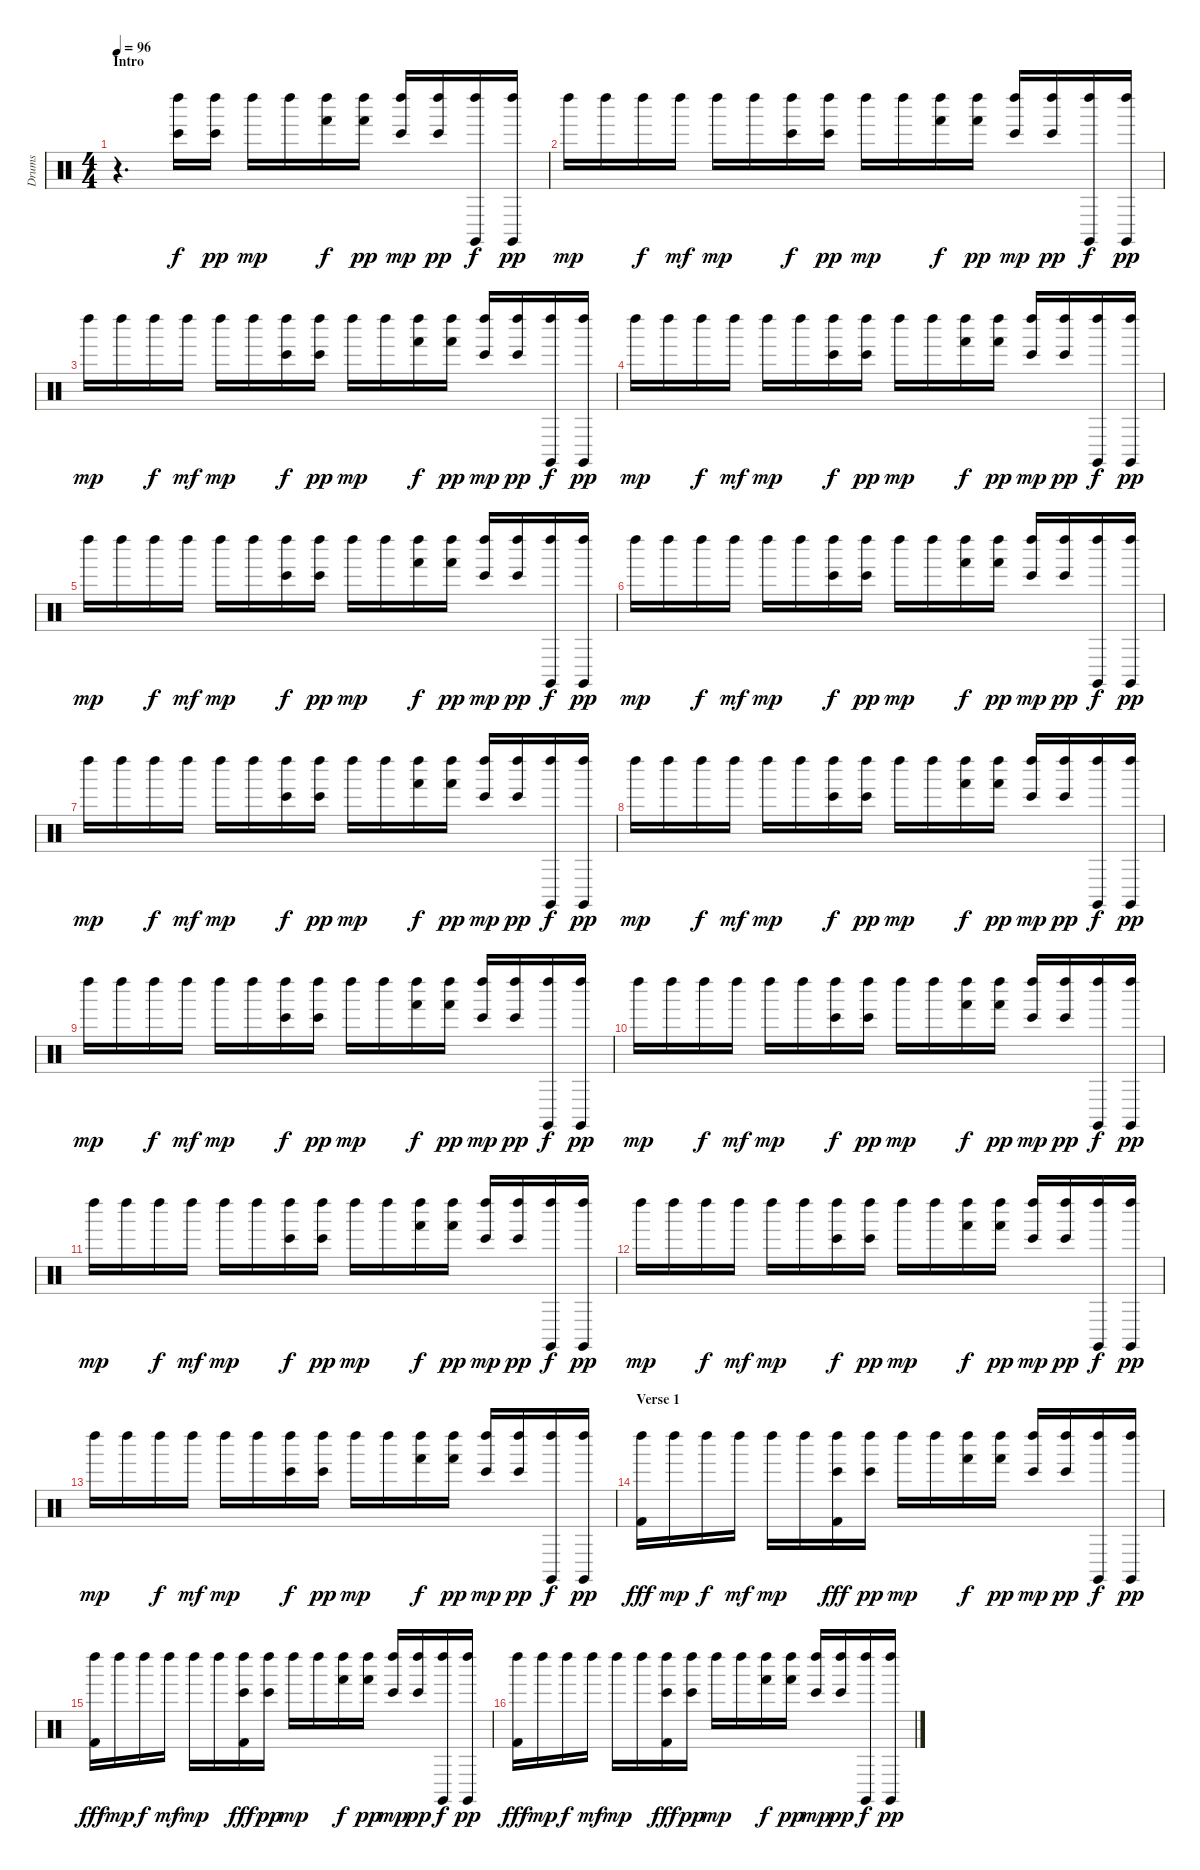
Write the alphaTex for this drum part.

\track ("Drums" "Drums") {instrument percussion}
\staff {score}
\articulation defaults
\ts (4 4)
\section ("" "Intro")
\tempo 96
\clef neutral
\ks c
r.4{d dy f} ("Left Maraca (hit)" "Bongo High (hit)").16 ("Left Maraca (hit)" "Bongo High (hit)").16{dy pp} "Left Maraca (hit)".16{dy mp} "Left Maraca (hit)".16 ("Left Maraca (hit)" "Hand (hit)").16{dy f} ("Left Maraca (hit)" "Hand (hit)").16{dy pp} ("Left Maraca (hit)" "Bongo High (hit)").16{dy mp} ("Left Maraca (hit)" "Bongo High (hit)").16{dy pp} ("Left Maraca (hit)" "Claves (hit)").16{dy f} ("Left Maraca (hit)" "Claves (hit)").16{dy pp} |
"Left Maraca (hit)".16{dy mp} "Left Maraca (hit)".16 "Left Maraca (hit)".16{dy f} "Left Maraca (hit)".16{dy mf} "Left Maraca (hit)".16{dy mp} "Left Maraca (hit)".16 ("Left Maraca (hit)" "Bongo High (hit)").16{dy f} ("Left Maraca (hit)" "Bongo High (hit)").16{dy pp} "Left Maraca (hit)".16{dy mp} "Left Maraca (hit)".16 ("Left Maraca (hit)" "Hand (hit)").16{dy f} ("Left Maraca (hit)" "Hand (hit)").16{dy pp} ("Left Maraca (hit)" "Bongo High (hit)").16{dy mp} ("Left Maraca (hit)" "Bongo High (hit)").16{dy pp} ("Left Maraca (hit)" "Claves (hit)").16{dy f} ("Left Maraca (hit)" "Claves (hit)").16{dy pp} |
"Left Maraca (hit)".16{dy mp} "Left Maraca (hit)".16 "Left Maraca (hit)".16{dy f} "Left Maraca (hit)".16{dy mf} "Left Maraca (hit)".16{dy mp} "Left Maraca (hit)".16 ("Left Maraca (hit)" "Bongo High (hit)").16{dy f} ("Left Maraca (hit)" "Bongo High (hit)").16{dy pp} "Left Maraca (hit)".16{dy mp} "Left Maraca (hit)".16 ("Left Maraca (hit)" "Hand (hit)").16{dy f} ("Left Maraca (hit)" "Hand (hit)").16{dy pp} ("Left Maraca (hit)" "Bongo High (hit)").16{dy mp} ("Left Maraca (hit)" "Bongo High (hit)").16{dy pp} ("Left Maraca (hit)" "Claves (hit)").16{dy f} ("Left Maraca (hit)" "Claves (hit)").16{dy pp} |
"Left Maraca (hit)".16{dy mp} "Left Maraca (hit)".16 "Left Maraca (hit)".16{dy f} "Left Maraca (hit)".16{dy mf} "Left Maraca (hit)".16{dy mp} "Left Maraca (hit)".16 ("Left Maraca (hit)" "Bongo High (hit)").16{dy f} ("Left Maraca (hit)" "Bongo High (hit)").16{dy pp} "Left Maraca (hit)".16{dy mp} "Left Maraca (hit)".16 ("Left Maraca (hit)" "Hand (hit)").16{dy f} ("Left Maraca (hit)" "Hand (hit)").16{dy pp} ("Left Maraca (hit)" "Bongo High (hit)").16{dy mp} ("Left Maraca (hit)" "Bongo High (hit)").16{dy pp} ("Left Maraca (hit)" "Claves (hit)").16{dy f} ("Left Maraca (hit)" "Claves (hit)").16{dy pp} |
"Left Maraca (hit)".16{dy mp} "Left Maraca (hit)".16 "Left Maraca (hit)".16{dy f} "Left Maraca (hit)".16{dy mf} "Left Maraca (hit)".16{dy mp} "Left Maraca (hit)".16 ("Left Maraca (hit)" "Bongo High (hit)").16{dy f} ("Left Maraca (hit)" "Bongo High (hit)").16{dy pp} "Left Maraca (hit)".16{dy mp} "Left Maraca (hit)".16 ("Left Maraca (hit)" "Hand (hit)").16{dy f} ("Left Maraca (hit)" "Hand (hit)").16{dy pp} ("Left Maraca (hit)" "Bongo High (hit)").16{dy mp} ("Left Maraca (hit)" "Bongo High (hit)").16{dy pp} ("Left Maraca (hit)" "Claves (hit)").16{dy f} ("Left Maraca (hit)" "Claves (hit)").16{dy pp} |
"Left Maraca (hit)".16{dy mp} "Left Maraca (hit)".16 "Left Maraca (hit)".16{dy f} "Left Maraca (hit)".16{dy mf} "Left Maraca (hit)".16{dy mp} "Left Maraca (hit)".16 ("Left Maraca (hit)" "Bongo High (hit)").16{dy f} ("Left Maraca (hit)" "Bongo High (hit)").16{dy pp} "Left Maraca (hit)".16{dy mp} "Left Maraca (hit)".16 ("Left Maraca (hit)" "Hand (hit)").16{dy f} ("Left Maraca (hit)" "Hand (hit)").16{dy pp} ("Left Maraca (hit)" "Bongo High (hit)").16{dy mp} ("Left Maraca (hit)" "Bongo High (hit)").16{dy pp} ("Left Maraca (hit)" "Claves (hit)").16{dy f} ("Left Maraca (hit)" "Claves (hit)").16{dy pp} |
"Left Maraca (hit)".16{dy mp} "Left Maraca (hit)".16 "Left Maraca (hit)".16{dy f} "Left Maraca (hit)".16{dy mf} "Left Maraca (hit)".16{dy mp} "Left Maraca (hit)".16 ("Left Maraca (hit)" "Bongo High (hit)").16{dy f} ("Left Maraca (hit)" "Bongo High (hit)").16{dy pp} "Left Maraca (hit)".16{dy mp} "Left Maraca (hit)".16 ("Left Maraca (hit)" "Hand (hit)").16{dy f} ("Left Maraca (hit)" "Hand (hit)").16{dy pp} ("Left Maraca (hit)" "Bongo High (hit)").16{dy mp} ("Left Maraca (hit)" "Bongo High (hit)").16{dy pp} ("Left Maraca (hit)" "Claves (hit)").16{dy f} ("Left Maraca (hit)" "Claves (hit)").16{dy pp} |
"Left Maraca (hit)".16{dy mp} "Left Maraca (hit)".16 "Left Maraca (hit)".16{dy f} "Left Maraca (hit)".16{dy mf} "Left Maraca (hit)".16{dy mp} "Left Maraca (hit)".16 ("Left Maraca (hit)" "Bongo High (hit)").16{dy f} ("Left Maraca (hit)" "Bongo High (hit)").16{dy pp} "Left Maraca (hit)".16{dy mp} "Left Maraca (hit)".16 ("Left Maraca (hit)" "Hand (hit)").16{dy f} ("Left Maraca (hit)" "Hand (hit)").16{dy pp} ("Left Maraca (hit)" "Bongo High (hit)").16{dy mp} ("Left Maraca (hit)" "Bongo High (hit)").16{dy pp} ("Left Maraca (hit)" "Claves (hit)").16{dy f} ("Left Maraca (hit)" "Claves (hit)").16{dy pp} |
"Left Maraca (hit)".16{dy mp} "Left Maraca (hit)".16 "Left Maraca (hit)".16{dy f} "Left Maraca (hit)".16{dy mf} "Left Maraca (hit)".16{dy mp} "Left Maraca (hit)".16 ("Left Maraca (hit)" "Bongo High (hit)").16{dy f} ("Left Maraca (hit)" "Bongo High (hit)").16{dy pp} "Left Maraca (hit)".16{dy mp} "Left Maraca (hit)".16 ("Left Maraca (hit)" "Hand (hit)").16{dy f} ("Left Maraca (hit)" "Hand (hit)").16{dy pp} ("Left Maraca (hit)" "Bongo High (hit)").16{dy mp} ("Left Maraca (hit)" "Bongo High (hit)").16{dy pp} ("Left Maraca (hit)" "Claves (hit)").16{dy f} ("Left Maraca (hit)" "Claves (hit)").16{dy pp} |
"Left Maraca (hit)".16{dy mp} "Left Maraca (hit)".16 "Left Maraca (hit)".16{dy f} "Left Maraca (hit)".16{dy mf} "Left Maraca (hit)".16{dy mp} "Left Maraca (hit)".16 ("Left Maraca (hit)" "Bongo High (hit)").16{dy f} ("Left Maraca (hit)" "Bongo High (hit)").16{dy pp} "Left Maraca (hit)".16{dy mp} "Left Maraca (hit)".16 ("Left Maraca (hit)" "Hand (hit)").16{dy f} ("Left Maraca (hit)" "Hand (hit)").16{dy pp} ("Left Maraca (hit)" "Bongo High (hit)").16{dy mp} ("Left Maraca (hit)" "Bongo High (hit)").16{dy pp} ("Left Maraca (hit)" "Claves (hit)").16{dy f} ("Left Maraca (hit)" "Claves (hit)").16{dy pp} |
"Left Maraca (hit)".16{dy mp} "Left Maraca (hit)".16 "Left Maraca (hit)".16{dy f} "Left Maraca (hit)".16{dy mf} "Left Maraca (hit)".16{dy mp} "Left Maraca (hit)".16 ("Left Maraca (hit)" "Bongo High (hit)").16{dy f} ("Left Maraca (hit)" "Bongo High (hit)").16{dy pp} "Left Maraca (hit)".16{dy mp} "Left Maraca (hit)".16 ("Left Maraca (hit)" "Hand (hit)").16{dy f} ("Left Maraca (hit)" "Hand (hit)").16{dy pp} ("Left Maraca (hit)" "Bongo High (hit)").16{dy mp} ("Left Maraca (hit)" "Bongo High (hit)").16{dy pp} ("Left Maraca (hit)" "Claves (hit)").16{dy f} ("Left Maraca (hit)" "Claves (hit)").16{dy pp} |
"Left Maraca (hit)".16{dy mp} "Left Maraca (hit)".16 "Left Maraca (hit)".16{dy f} "Left Maraca (hit)".16{dy mf} "Left Maraca (hit)".16{dy mp} "Left Maraca (hit)".16 ("Left Maraca (hit)" "Bongo High (hit)").16{dy f} ("Left Maraca (hit)" "Bongo High (hit)").16{dy pp} "Left Maraca (hit)".16{dy mp} "Left Maraca (hit)".16 ("Left Maraca (hit)" "Hand (hit)").16{dy f} ("Left Maraca (hit)" "Hand (hit)").16{dy pp} ("Left Maraca (hit)" "Bongo High (hit)").16{dy mp} ("Left Maraca (hit)" "Bongo High (hit)").16{dy pp} ("Left Maraca (hit)" "Claves (hit)").16{dy f} ("Left Maraca (hit)" "Claves (hit)").16{dy pp} |
"Left Maraca (hit)".16{dy mp} "Left Maraca (hit)".16 "Left Maraca (hit)".16{dy f} "Left Maraca (hit)".16{dy mf} "Left Maraca (hit)".16{dy mp} "Left Maraca (hit)".16 ("Left Maraca (hit)" "Bongo High (hit)").16{dy f} ("Left Maraca (hit)" "Bongo High (hit)").16{dy pp} "Left Maraca (hit)".16{dy mp} "Left Maraca (hit)".16 ("Left Maraca (hit)" "Hand (hit)").16{dy f} ("Left Maraca (hit)" "Hand (hit)").16{dy pp} ("Left Maraca (hit)" "Bongo High (hit)").16{dy mp} ("Left Maraca (hit)" "Bongo High (hit)").16{dy pp} ("Left Maraca (hit)" "Claves (hit)").16{dy f} ("Left Maraca (hit)" "Claves (hit)").16{dy pp} |
\section ("" "Verse 1")
("Left Maraca (hit)" "Kick (hit) 2").16{dy fff} "Left Maraca (hit)".16{dy mp} "Left Maraca (hit)".16{dy f} "Left Maraca (hit)".16{dy mf} "Left Maraca (hit)".16{dy mp} "Left Maraca (hit)".16 ("Left Maraca (hit)" "Bongo High (hit)" "Kick (hit) 2").16{dy fff} ("Left Maraca (hit)" "Bongo High (hit)").16{dy pp} "Left Maraca (hit)".16{dy mp} "Left Maraca (hit)".16 ("Left Maraca (hit)" "Hand (hit)").16{dy f} ("Left Maraca (hit)" "Hand (hit)").16{dy pp} ("Left Maraca (hit)" "Bongo High (hit)").16{dy mp} ("Left Maraca (hit)" "Bongo High (hit)").16{dy pp} ("Left Maraca (hit)" "Claves (hit)").16{dy f} ("Left Maraca (hit)" "Claves (hit)").16{dy pp} |
("Left Maraca (hit)" "Kick (hit) 2").16{dy fff} "Left Maraca (hit)".16{dy mp} "Left Maraca (hit)".16{dy f} "Left Maraca (hit)".16{dy mf} "Left Maraca (hit)".16{dy mp} "Left Maraca (hit)".16 ("Left Maraca (hit)" "Bongo High (hit)" "Kick (hit) 2").16{dy fff} ("Left Maraca (hit)" "Bongo High (hit)").16{dy pp} "Left Maraca (hit)".16{dy mp} "Left Maraca (hit)".16 ("Left Maraca (hit)" "Hand (hit)").16{dy f} ("Left Maraca (hit)" "Hand (hit)").16{dy pp} ("Left Maraca (hit)" "Bongo High (hit)").16{dy mp} ("Left Maraca (hit)" "Bongo High (hit)").16{dy pp} ("Left Maraca (hit)" "Claves (hit)").16{dy f} ("Left Maraca (hit)" "Claves (hit)").16{dy pp} |
("Left Maraca (hit)" "Kick (hit) 2").16{dy fff} "Left Maraca (hit)".16{dy mp} "Left Maraca (hit)".16{dy f} "Left Maraca (hit)".16{dy mf} "Left Maraca (hit)".16{dy mp} "Left Maraca (hit)".16 ("Left Maraca (hit)" "Bongo High (hit)" "Kick (hit) 2").16{dy fff} ("Left Maraca (hit)" "Bongo High (hit)").16{dy pp} "Left Maraca (hit)".16{dy mp} "Left Maraca (hit)".16 ("Left Maraca (hit)" "Hand (hit)").16{dy f} ("Left Maraca (hit)" "Hand (hit)").16{dy pp} ("Left Maraca (hit)" "Bongo High (hit)").16{dy mp} ("Left Maraca (hit)" "Bongo High (hit)").16{dy pp} ("Left Maraca (hit)" "Claves (hit)").16{dy f} ("Left Maraca (hit)" "Claves (hit)").16{dy pp}
